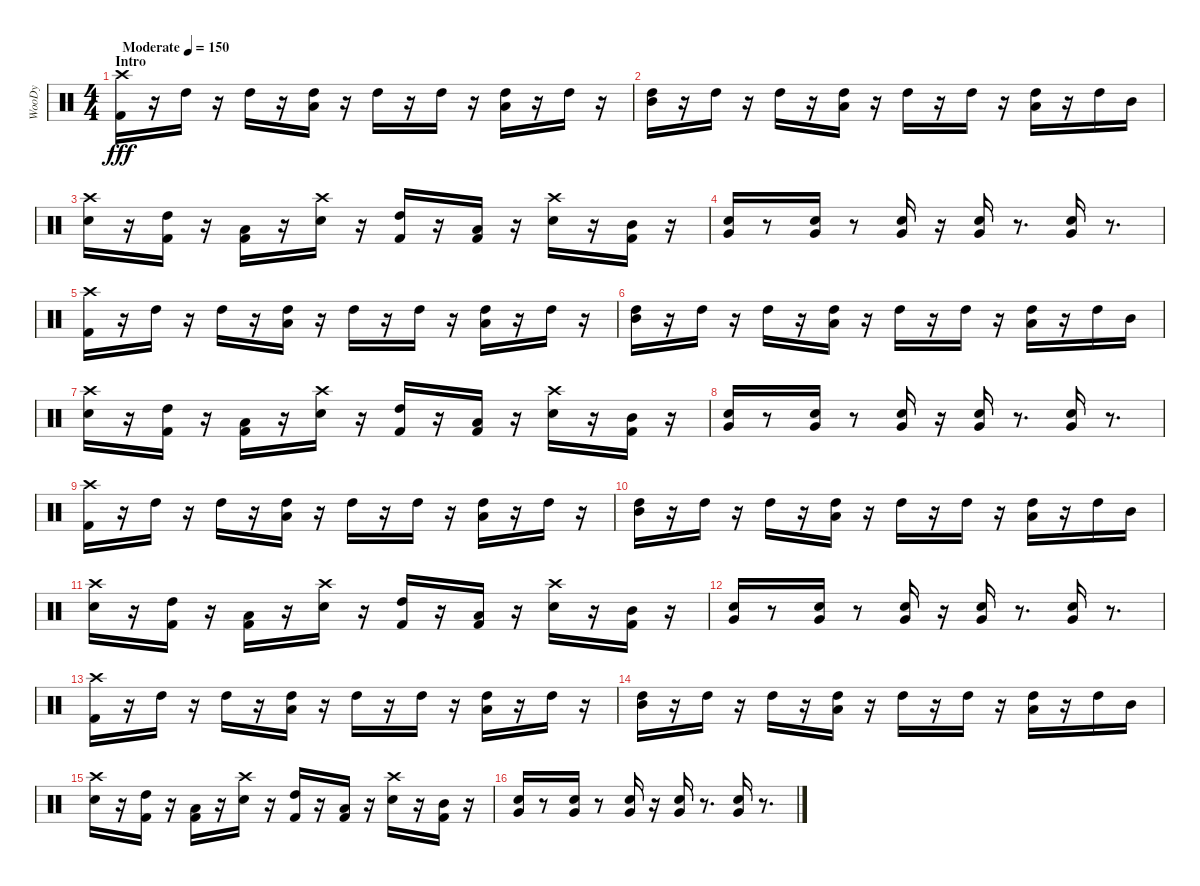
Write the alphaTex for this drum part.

\track ("WooDy" "WooDy") {instrument percussion}
\staff {score}
\articulation defaults
\ts (4 4)
\section ("" "Intro")
\tempo (150 "Moderate")
\clef neutral
\ks c
("Kick (hit) 2" "Crash high (hit)").16{dy fff} r.16 "High Tom (hit)".16 r.16 "High Tom (hit)".16 r.16 ("Low Tom (hit)" "High Tom (hit)").16 r.16 "High Tom (hit)".16 r.16 "High Tom (hit)".16 r.16 ("Low Tom (hit)" "High Tom (hit)").16 r.16 "High Tom (hit)".16 r.16 |
("Mid Tom (hit)" "High Tom (hit)").16 r.16 "High Tom (hit)".16 r.16 "High Tom (hit)".16 r.16 ("Low Tom (hit)" "High Tom (hit)").16 r.16 "High Tom (hit)".16 r.16 "High Tom (hit)".16 r.16 ("Low Tom (hit)" "High Tom (hit)").16 r.16 "High Tom (hit)".16 "Mid Tom (hit)".16 |
("Snare (hit) 2" "Crash high (hit)").16 r.16 ("Kick (hit) 2" "High Tom (hit)").16 r.16 ("Kick (hit) 2" "Low Tom (hit)").16 r.16 ("Snare (hit) 2" "Crash high (hit)").16 r.16 ("Kick (hit) 2" "High Tom (hit)").16 r.16 ("Kick (hit) 2" "Low Tom (hit)").16 r.16 ("Snare (hit) 2" "Crash high (hit)").16 r.16 ("Kick (hit) 2" "Mid Tom (hit)").16 r.16 |
("Snare (hit) 2" "Very Low Tom (hit)").16 r.8 ("Snare (hit) 2" "Very Low Tom (hit)").16 r.8 ("Snare (hit) 2" "Very Low Tom (hit)").16 r.16 ("Snare (hit) 2" "Very Low Tom (hit)").16 r.8{d} ("Snare (hit) 2" "Very Low Tom (hit)").16 r.8{d} |
("Kick (hit) 2" "Crash high (hit)").16 r.16 "High Tom (hit)".16 r.16 "High Tom (hit)".16 r.16 ("Low Tom (hit)" "High Tom (hit)").16 r.16 "High Tom (hit)".16 r.16 "High Tom (hit)".16 r.16 ("Low Tom (hit)" "High Tom (hit)").16 r.16 "High Tom (hit)".16 r.16 |
("Mid Tom (hit)" "High Tom (hit)").16 r.16 "High Tom (hit)".16 r.16 "High Tom (hit)".16 r.16 ("Low Tom (hit)" "High Tom (hit)").16 r.16 "High Tom (hit)".16 r.16 "High Tom (hit)".16 r.16 ("Low Tom (hit)" "High Tom (hit)").16 r.16 "High Tom (hit)".16 "Mid Tom (hit)".16 |
("Snare (hit) 2" "Crash high (hit)").16 r.16 ("Kick (hit) 2" "High Tom (hit)").16 r.16 ("Kick (hit) 2" "Low Tom (hit)").16 r.16 ("Snare (hit) 2" "Crash high (hit)").16 r.16 ("Kick (hit) 2" "High Tom (hit)").16 r.16 ("Kick (hit) 2" "Low Tom (hit)").16 r.16 ("Snare (hit) 2" "Crash high (hit)").16 r.16 ("Kick (hit) 2" "Mid Tom (hit)").16 r.16 |
("Snare (hit) 2" "Very Low Tom (hit)").16 r.8 ("Snare (hit) 2" "Very Low Tom (hit)").16 r.8 ("Snare (hit) 2" "Very Low Tom (hit)").16 r.16 ("Snare (hit) 2" "Very Low Tom (hit)").16 r.8{d} ("Snare (hit) 2" "Very Low Tom (hit)").16 r.8{d} |
("Kick (hit) 2" "Crash high (hit)").16 r.16 "High Tom (hit)".16 r.16 "High Tom (hit)".16 r.16 ("Low Tom (hit)" "High Tom (hit)").16 r.16 "High Tom (hit)".16 r.16 "High Tom (hit)".16 r.16 ("Low Tom (hit)" "High Tom (hit)").16 r.16 "High Tom (hit)".16 r.16 |
("Mid Tom (hit)" "High Tom (hit)").16 r.16 "High Tom (hit)".16 r.16 "High Tom (hit)".16 r.16 ("Low Tom (hit)" "High Tom (hit)").16 r.16 "High Tom (hit)".16 r.16 "High Tom (hit)".16 r.16 ("Low Tom (hit)" "High Tom (hit)").16 r.16 "High Tom (hit)".16 "Mid Tom (hit)".16 |
("Snare (hit) 2" "Crash high (hit)").16 r.16 ("Kick (hit) 2" "High Tom (hit)").16 r.16 ("Kick (hit) 2" "Low Tom (hit)").16 r.16 ("Snare (hit) 2" "Crash high (hit)").16 r.16 ("Kick (hit) 2" "High Tom (hit)").16 r.16 ("Kick (hit) 2" "Low Tom (hit)").16 r.16 ("Snare (hit) 2" "Crash high (hit)").16 r.16 ("Kick (hit) 2" "Mid Tom (hit)").16 r.16 |
("Snare (hit) 2" "Very Low Tom (hit)").16 r.8 ("Snare (hit) 2" "Very Low Tom (hit)").16 r.8 ("Snare (hit) 2" "Very Low Tom (hit)").16 r.16 ("Snare (hit) 2" "Very Low Tom (hit)").16 r.8{d} ("Snare (hit) 2" "Very Low Tom (hit)").16 r.8{d} |
("Kick (hit) 2" "Crash high (hit)").16 r.16 "High Tom (hit)".16 r.16 "High Tom (hit)".16 r.16 ("Low Tom (hit)" "High Tom (hit)").16 r.16 "High Tom (hit)".16 r.16 "High Tom (hit)".16 r.16 ("Low Tom (hit)" "High Tom (hit)").16 r.16 "High Tom (hit)".16 r.16 |
("Mid Tom (hit)" "High Tom (hit)").16 r.16 "High Tom (hit)".16 r.16 "High Tom (hit)".16 r.16 ("Low Tom (hit)" "High Tom (hit)").16 r.16 "High Tom (hit)".16 r.16 "High Tom (hit)".16 r.16 ("Low Tom (hit)" "High Tom (hit)").16 r.16 "High Tom (hit)".16 "Mid Tom (hit)".16 |
("Snare (hit) 2" "Crash high (hit)").16 r.16 ("Kick (hit) 2" "High Tom (hit)").16 r.16 ("Kick (hit) 2" "Low Tom (hit)").16 r.16 ("Snare (hit) 2" "Crash high (hit)").16 r.16 ("Kick (hit) 2" "High Tom (hit)").16 r.16 ("Kick (hit) 2" "Low Tom (hit)").16 r.16 ("Snare (hit) 2" "Crash high (hit)").16 r.16 ("Kick (hit) 2" "Mid Tom (hit)").16 r.16 |
("Snare (hit) 2" "Very Low Tom (hit)").16 r.8 ("Snare (hit) 2" "Very Low Tom (hit)").16 r.8 ("Snare (hit) 2" "Very Low Tom (hit)").16 r.16 ("Snare (hit) 2" "Very Low Tom (hit)").16 r.8{d} ("Snare (hit) 2" "Very Low Tom (hit)").16 r.8{d}
